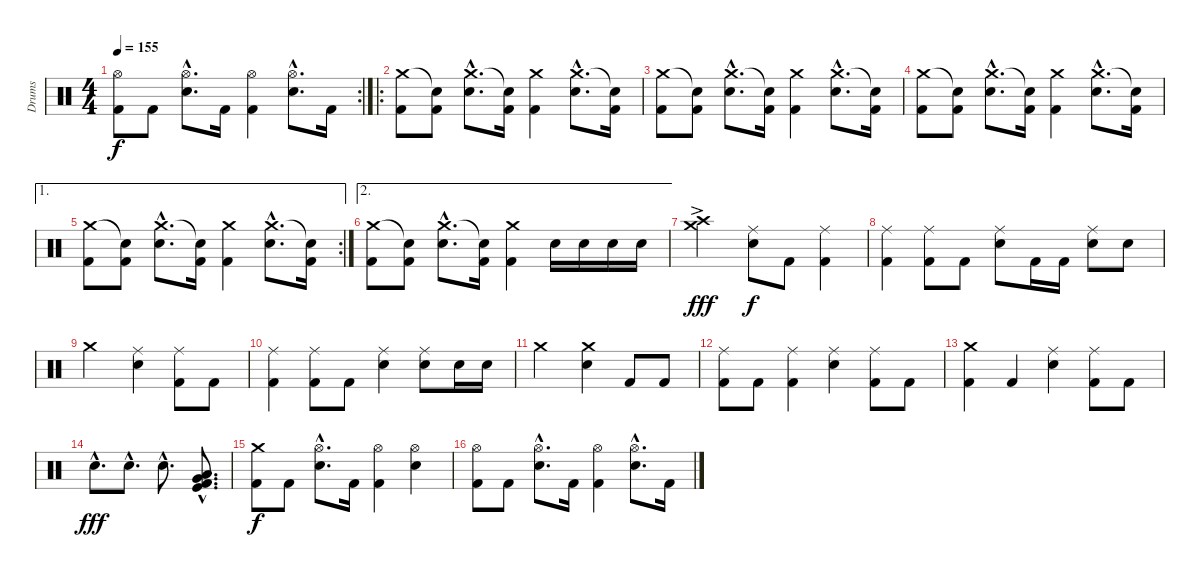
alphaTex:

\track ("Drums" "Drums") {instrument percussion}
\staff {score}
\articulation defaults
\rc 2
\ts (4 4)
\tempo 155
\clef neutral
\ks c
("Hi-Hat (open)" "Kick (hit) 2").8{dy f} "Kick (hit) 2".8 ("Hi-Hat (open)"{hac} "Snare (hit) 2"{hac}).8{d} "Kick (hit) 2".16 ("Hi-Hat (open)" "Kick (hit) 2").4 ("Hi-Hat (open)"{hac} "Snare (hit) 2"{hac}).8{d} "Kick (hit) 2".16 |
\ro
("Crash medium (hit)" "Kick (hit) 2").8 ("Snare (hit)"{t} "Kick (hit) 2").8 ("Crash medium (hit)"{hac} "Snare (hit) 2"{hac}).8{d} ("Snare (hit)"{t} "Kick (hit) 2").16 ("Crash medium (hit)" "Kick (hit) 2").4 ("Crash medium (hit)"{hac} "Snare (hit) 2"{hac}).8{d} ("Snare (hit)"{t} "Kick (hit) 2").16 |
("Crash medium (hit)" "Kick (hit) 2").8 ("Snare (hit)"{t} "Kick (hit) 2").8 ("Crash medium (hit)"{hac} "Snare (hit) 2"{hac}).8{d} ("Snare (hit)"{t} "Kick (hit) 2").16 ("Crash medium (hit)" "Kick (hit) 2").4 ("Crash medium (hit)"{hac} "Snare (hit) 2"{hac}).8{d} ("Snare (hit)"{t} "Kick (hit) 2").16 |
("Crash medium (hit)" "Kick (hit) 2").8 ("Snare (hit)"{t} "Kick (hit) 2").8 ("Crash medium (hit)"{hac} "Snare (hit) 2"{hac}).8{d} ("Snare (hit)"{t} "Kick (hit) 2").16 ("Crash medium (hit)" "Kick (hit) 2").4 ("Crash medium (hit)"{hac} "Snare (hit) 2"{hac}).8{d} ("Snare (hit)"{t} "Kick (hit) 2").16 |
\ae 1
\rc 2
("Crash medium (hit)" "Kick (hit) 2").8 ("Snare (hit)"{t} "Kick (hit) 2").8 ("Crash medium (hit)"{hac} "Snare (hit) 2"{hac}).8{d} ("Snare (hit)"{t} "Kick (hit) 2").16 ("Crash medium (hit)" "Kick (hit) 2").4 ("Crash medium (hit)"{hac} "Snare (hit) 2"{hac}).8{d} ("Snare (hit)"{t} "Kick (hit) 2").16 |
\ae 2
("Crash medium (hit)" "Kick (hit) 2").8 ("Snare (hit)"{t} "Kick (hit) 2").8 ("Crash medium (hit)"{hac} "Snare (hit) 2"{hac}).8{d} ("Snare (hit)"{t} "Kick (hit) 2").16 ("Crash medium (hit)" "Kick (hit) 2").4 "Snare (hit) 2".16 "Snare (hit) 2".16 "Snare (hit) 2".16 "Snare (hit) 2".16 |
("Crash medium (hit)"{ac} "Crash high (hit)"{ac}).2{dy fff} ("Ride (middle)" "Snare (hit) 2").8{dy f} "Kick (hit) 2".8 ("Ride (middle)" "Kick (hit) 2").4 |
("Ride (middle)" "Kick (hit) 2").4 ("Ride (middle)" "Kick (hit) 2").8 "Kick (hit) 2".8 ("Ride (middle)" "Snare (hit) 2").8 "Kick (hit) 2".16 "Kick (hit) 2".16 ("Ride (middle)" "Snare (hit) 2").8 "Snare (hit) 2".8 |
"Crash medium (hit)".2 ("Ride (middle)" "Snare (hit) 2").4 ("Ride (middle)" "Kick (hit) 2").8 "Kick (hit) 2".8 |
("Ride (middle)" "Kick (hit) 2").4 ("Ride (middle)" "Kick (hit) 2").8 "Kick (hit) 2".8 ("Ride (middle)" "Snare (hit) 2").4 ("Ride (middle)" "Snare (hit) 2").8 "Snare (hit) 2".16 "Snare (hit) 2".16 |
"Crash medium (hit)".2 ("Crash medium (hit)" "Snare (hit) 2").4 "Kick (hit) 2".8 "Kick (hit) 2".8 |
("Ride (middle)" "Kick (hit) 2").8 "Kick (hit) 2".8 ("Ride (middle)" "Kick (hit) 2").4 ("Ride (middle)" "Snare (hit) 2").4 ("Ride (middle)" "Kick (hit) 2").8 "Kick (hit) 2".8 |
("Crash medium (hit)" "Kick (hit) 2").4 "Kick (hit) 2".4 ("Ride (middle)" "Snare (hit) 2").4 ("Ride (middle)" "Kick (hit) 2").8 "Kick (hit) 2".8 |
"Snare (hit) 2"{hac}.8{d dy fff} "Snare (hit) 2"{hac}.8{d} "Snare (hit) 2"{hac}.8{d} ("Low Floor Tom (hit)"{hac} "Very Low Tom (hit)"{hac} "Kick (hit) 2"{hac} "Kick (hit)"{hac}).8{d} |
("Crash medium (hit)" "Kick (hit) 2").8{dy f} "Kick (hit) 2".8 ("Hi-Hat (open)"{hac} "Snare (hit) 2"{hac}).8{d} "Kick (hit) 2".16 ("Hi-Hat (open)" "Kick (hit) 2").4 ("Hi-Hat (open)" "Snare (hit) 2").4 |
("Hi-Hat (open)" "Kick (hit) 2").8 "Kick (hit) 2".8 ("Hi-Hat (open)"{hac} "Snare (hit) 2"{hac}).8{d} "Kick (hit) 2".16 ("Hi-Hat (open)" "Kick (hit) 2").4 ("Hi-Hat (open)"{hac} "Snare (hit) 2"{hac}).8{d} "Kick (hit) 2".16
